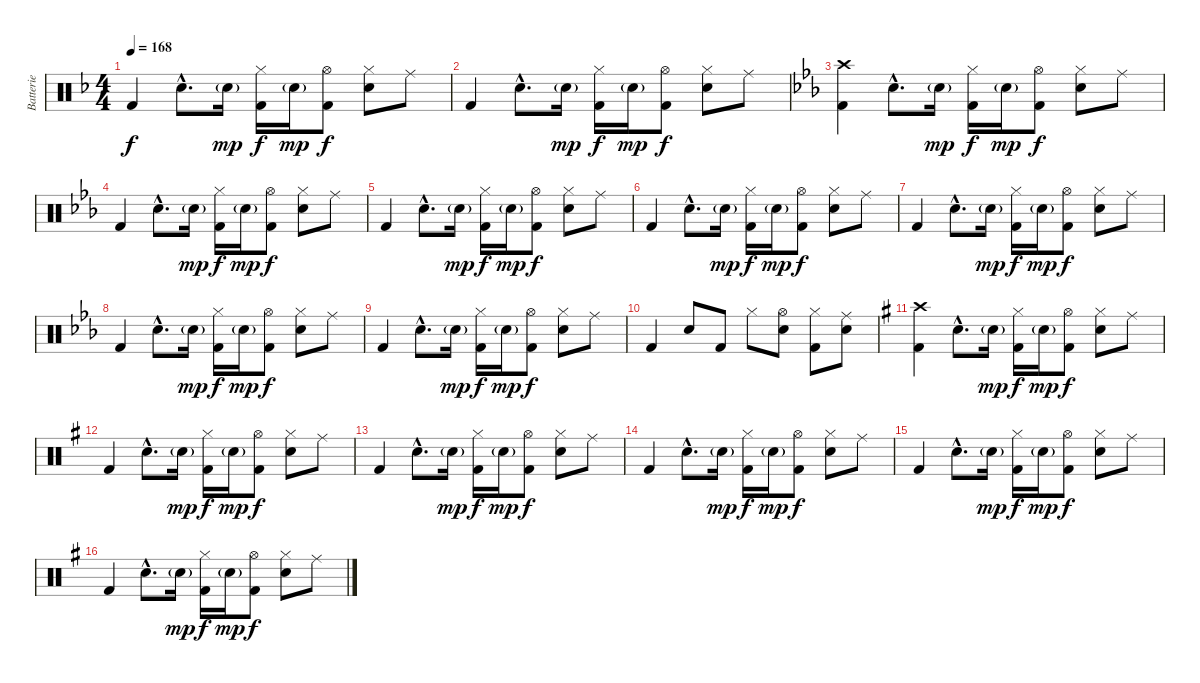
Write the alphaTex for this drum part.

\track ("Batterie" "Batterie") {instrument percussion}
\staff {score}
\articulation defaults
\ts (4 4)
\tempo 168
\clef neutral
\ks f "Kick (hit) 2".4{dy f} "Snare (hit) 2"{hac}.8{d} "Snare (hit) 2"{g}.16{dy mp}
("Hi-Hat (closed)" "Kick (hit) 2").16{dy f} "Snare (hit) 2"{g}.16{dy mp} ("Hi-Hat (open)" "Kick (hit) 2").8{dy f} ("Hi-Hat (closed)" "Snare (hit) 2").8 "Ride (middle)".8 |
"Kick (hit) 2".4 "Snare (hit) 2"{hac}.8{d} "Snare (hit) 2"{g}.16{dy mp} ("Hi-Hat (closed)" "Kick (hit) 2").16{dy f} "Snare (hit) 2"{g}.16{dy mp} ("Hi-Hat (open)" "Kick (hit) 2").8{dy f} ("Hi-Hat (closed)" "Snare (hit) 2").8 "Ride (middle)".8 |
\ks eb
("Crash high (hit)" "Kick (hit) 2").4 "Snare (hit) 2"{hac}.8{d} "Snare (hit) 2"{g}.16{dy mp} ("Hi-Hat (closed)" "Kick (hit) 2").16{dy f} "Snare (hit) 2"{g}.16{dy mp} ("Hi-Hat (open)" "Kick (hit) 2").8{dy f} ("Hi-Hat (closed)" "Snare (hit) 2").8 "Ride (middle)".8 |
"Kick (hit) 2".4 "Snare (hit) 2"{hac}.8{d} "Snare (hit) 2"{g}.16{dy mp} ("Hi-Hat (closed)" "Kick (hit) 2").16{dy f} "Snare (hit) 2"{g}.16{dy mp} ("Hi-Hat (open)" "Kick (hit) 2").8{dy f} ("Hi-Hat (closed)" "Snare (hit) 2").8 "Ride (middle)".8 |
"Kick (hit) 2".4 "Snare (hit) 2"{hac}.8{d} "Snare (hit) 2"{g}.16{dy mp} ("Hi-Hat (closed)" "Kick (hit) 2").16{dy f} "Snare (hit) 2"{g}.16{dy mp} ("Hi-Hat (open)" "Kick (hit) 2").8{dy f} ("Hi-Hat (closed)" "Snare (hit) 2").8 "Ride (middle)".8 |
"Kick (hit) 2".4 "Snare (hit) 2"{hac}.8{d} "Snare (hit) 2"{g}.16{dy mp} ("Hi-Hat (closed)" "Kick (hit) 2").16{dy f} "Snare (hit) 2"{g}.16{dy mp} ("Hi-Hat (open)" "Kick (hit) 2").8{dy f} ("Hi-Hat (closed)" "Snare (hit) 2").8 "Ride (middle)".8 |
"Kick (hit) 2".4 "Snare (hit) 2"{hac}.8{d} "Snare (hit) 2"{g}.16{dy mp} ("Hi-Hat (closed)" "Kick (hit) 2").16{dy f} "Snare (hit) 2"{g}.16{dy mp} ("Hi-Hat (open)" "Kick (hit) 2").8{dy f} ("Hi-Hat (closed)" "Snare (hit) 2").8 "Ride (middle)".8 |
"Kick (hit) 2".4 "Snare (hit) 2"{hac}.8{d} "Snare (hit) 2"{g}.16{dy mp} ("Hi-Hat (closed)" "Kick (hit) 2").16{dy f} "Snare (hit) 2"{g}.16{dy mp} ("Hi-Hat (open)" "Kick (hit) 2").8{dy f} ("Hi-Hat (closed)" "Snare (hit) 2").8 "Ride (middle)".8 |
"Kick (hit) 2".4 "Snare (hit) 2"{hac}.8{d} "Snare (hit) 2"{g}.16{dy mp} ("Hi-Hat (closed)" "Kick (hit) 2").16{dy f} "Snare (hit) 2"{g}.16{dy mp} ("Hi-Hat (open)" "Kick (hit) 2").8{dy f} ("Hi-Hat (closed)" "Snare (hit) 2").8 "Ride (middle)".8 |
"Kick (hit) 2".4 "Snare (hit) 2".8 "Kick (hit) 2".8 "Hi-Hat (closed)".8 ("Hi-Hat (open)" "Snare (hit) 2").8 ("Hi-Hat (closed)" "Kick (hit) 2").8 ("Ride (middle)" "Snare (hit) 2").8 |
\ks g
("Crash high (hit)" "Kick (hit) 2").4 "Snare (hit) 2"{hac}.8{d} "Snare (hit) 2"{g}.16{dy mp} ("Hi-Hat (closed)" "Kick (hit) 2").16{dy f} "Snare (hit) 2"{g}.16{dy mp} ("Hi-Hat (open)" "Kick (hit) 2").8{dy f} ("Hi-Hat (closed)" "Snare (hit) 2").8 "Ride (middle)".8 |
"Kick (hit) 2".4 "Snare (hit) 2"{hac}.8{d} "Snare (hit) 2"{g}.16{dy mp} ("Hi-Hat (closed)" "Kick (hit) 2").16{dy f} "Snare (hit) 2"{g}.16{dy mp} ("Hi-Hat (open)" "Kick (hit) 2").8{dy f} ("Hi-Hat (closed)" "Snare (hit) 2").8 "Ride (middle)".8 |
"Kick (hit) 2".4 "Snare (hit) 2"{hac}.8{d} "Snare (hit) 2"{g}.16{dy mp} ("Hi-Hat (closed)" "Kick (hit) 2").16{dy f} "Snare (hit) 2"{g}.16{dy mp} ("Hi-Hat (open)" "Kick (hit) 2").8{dy f} ("Hi-Hat (closed)" "Snare (hit) 2").8 "Ride (middle)".8 |
"Kick (hit) 2".4 "Snare (hit) 2"{hac}.8{d} "Snare (hit) 2"{g}.16{dy mp} ("Hi-Hat (closed)" "Kick (hit) 2").16{dy f} "Snare (hit) 2"{g}.16{dy mp} ("Hi-Hat (open)" "Kick (hit) 2").8{dy f} ("Hi-Hat (closed)" "Snare (hit) 2").8 "Ride (middle)".8 |
"Kick (hit) 2".4 "Snare (hit) 2"{hac}.8{d} "Snare (hit) 2"{g}.16{dy mp} ("Hi-Hat (closed)" "Kick (hit) 2").16{dy f} "Snare (hit) 2"{g}.16{dy mp} ("Hi-Hat (open)" "Kick (hit) 2").8{dy f} ("Hi-Hat (closed)" "Snare (hit) 2").8 "Ride (middle)".8 |
"Kick (hit) 2".4 "Snare (hit) 2"{hac}.8{d} "Snare (hit) 2"{g}.16{dy mp} ("Hi-Hat (closed)" "Kick (hit) 2").16{dy f} "Snare (hit) 2"{g}.16{dy mp} ("Hi-Hat (open)" "Kick (hit) 2").8{dy f} ("Hi-Hat (closed)" "Snare (hit) 2").8 "Ride (middle)".8
